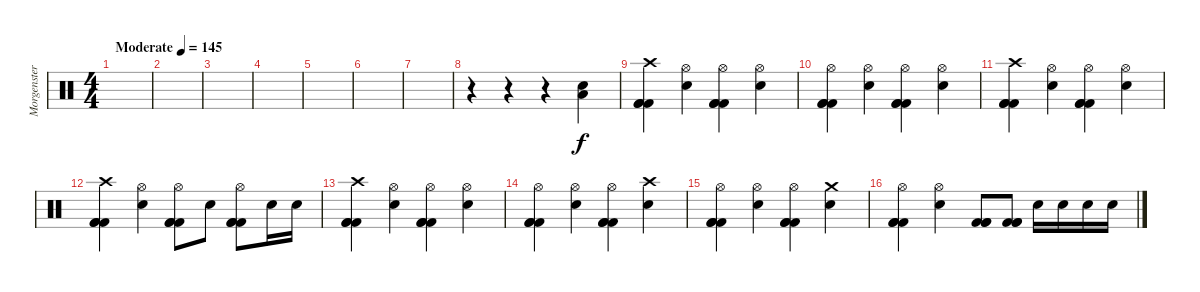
\track ("Morgenstern (Schlagzeug)" "Morgenster") {instrument percussion}
\staff {score}
\articulation defaults
\ts (4 4)
\tempo (145 "Moderate")
\clef neutral
\ks c
|
|
|
|
|
|
|
r.4 r.4 r.4 ("Snare (hit) 2" "Low Tom (hit)").4 |
("Crash high (hit)" "Kick (hit) 2" "Kick (hit) 2" "Kick (hit) 2").4 ("Hi-Hat (open)" "Snare (hit) 2").4 ("Hi-Hat (open)" "Kick (hit) 2" "Kick (hit) 2" "Kick (hit) 2").4 ("Hi-Hat (open)" "Snare (hit) 2").4 |
("Hi-Hat (open)" "Kick (hit) 2" "Kick (hit) 2" "Kick (hit) 2").4 ("Hi-Hat (open)" "Snare (hit) 2").4 ("Hi-Hat (open)" "Kick (hit) 2" "Kick (hit) 2" "Kick (hit) 2").4 ("Hi-Hat (open)" "Snare (hit) 2").4 |
("Crash high (hit)" "Kick (hit) 2" "Kick (hit) 2" "Kick (hit) 2").4 ("Hi-Hat (open)" "Snare (hit) 2").4 ("Hi-Hat (open)" "Kick (hit) 2" "Kick (hit) 2" "Kick (hit) 2").4 ("Hi-Hat (open)" "Snare (hit) 2").4 |
("Crash high (hit)" "Kick (hit) 2" "Kick (hit) 2" "Kick (hit) 2").4 ("Hi-Hat (open)" "Snare (hit) 2").4 ("Hi-Hat (open)" "Kick (hit) 2" "Kick (hit) 2" "Kick (hit) 2").8 "Snare (hit) 2".8 ("Hi-Hat (open)" "Kick (hit) 2" "Kick (hit) 2" "Kick (hit) 2").8 "Snare (hit) 2".16 "Snare (hit) 2".16 |
("Crash high (hit)" "Kick (hit) 2" "Kick (hit) 2" "Kick (hit) 2").4 ("Hi-Hat (open)" "Snare (hit) 2").4 ("Hi-Hat (open)" "Kick (hit) 2" "Kick (hit) 2" "Kick (hit) 2").4 ("Hi-Hat (open)" "Snare (hit) 2").4 |
("Hi-Hat (open)" "Kick (hit) 2" "Kick (hit) 2" "Kick (hit) 2").4 ("Hi-Hat (open)" "Snare (hit) 2").4 ("Hi-Hat (open)" "Kick (hit) 2" "Kick (hit) 2" "Kick (hit) 2").4 ("Crash high (hit)" "Snare (hit) 2").4 |
("Hi-Hat (open)" "Kick (hit) 2" "Kick (hit) 2" "Kick (hit) 2").4 ("Hi-Hat (open)" "Snare (hit) 2").4 ("Hi-Hat (open)" "Kick (hit) 2" "Kick (hit) 2" "Kick (hit) 2").4 ("Crash medium (hit)" "Snare (hit) 2").4 |
("Hi-Hat (open)" "Kick (hit) 2" "Kick (hit) 2" "Kick (hit) 2").4 ("Hi-Hat (open)" "Snare (hit) 2").4 ("Kick (hit) 2" "Kick (hit) 2" "Kick (hit) 2").8 ("Kick (hit) 2" "Kick (hit) 2" "Kick (hit) 2").8 "Snare (hit) 2".16 "Snare (hit) 2".16 "Snare (hit) 2".16 "Snare (hit) 2".16
